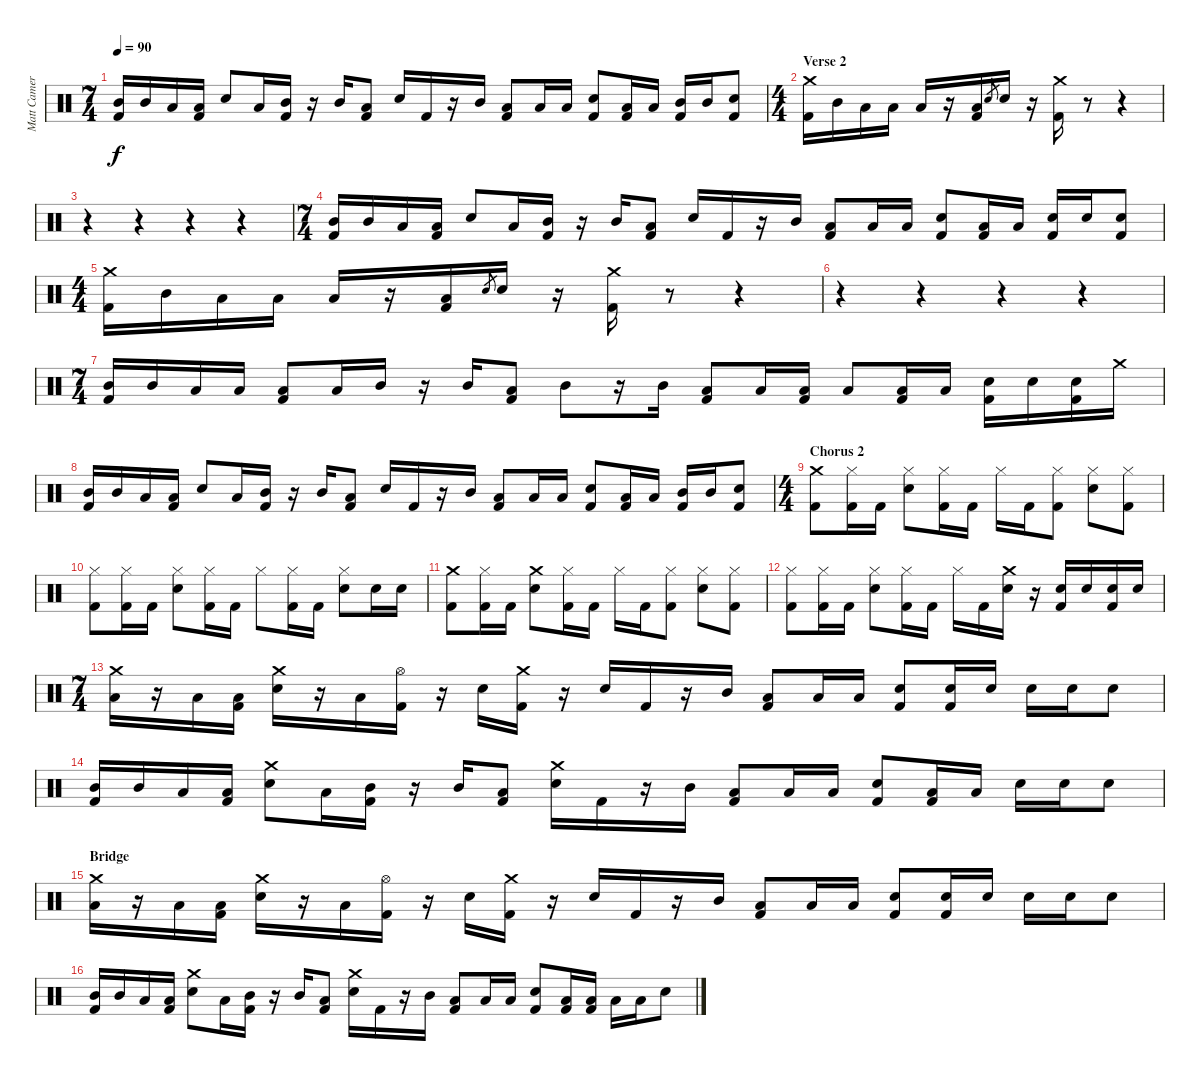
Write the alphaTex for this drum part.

\track ("Matt Cameron" "Matt Camer") {instrument percussion}
\staff {score}
\articulation defaults
\ts (7 4)
\tempo 90
\clef neutral
\ks c
("Mid Tom (hit)" "Kick (hit) 2").16{dy f} "Mid Tom (hit)".16 "Low Tom (hit)".16 ("Low Tom (hit)" "Kick (hit) 2").16 "Electric Snare (hit)".8 "Low Tom (hit)".16 ("Mid Tom (hit)" "Kick (hit) 2").16 r.16 "Mid Tom (hit)".16 ("Low Tom (hit)" "Kick (hit) 2").8 "Electric Snare (hit)".16 "Kick (hit) 2".16 r.16 "Mid Tom (hit)".16 ("Low Tom (hit)" "Kick (hit) 2").8 "Low Tom (hit)".16 "Low Tom (hit)".16 ("Electric Snare (hit)" "Kick (hit) 2").8 ("Low Tom (hit)" "Kick (hit) 2").16 "Low Tom (hit)".16 ("Mid Tom (hit)" "Kick (hit) 2").16 "Mid Tom (hit)".16 ("Electric Snare (hit)" "Kick (hit) 2").8 |
\ts (4 4)
\section ("" "Verse 2")
("Crash medium (hit)" "Kick (hit) 2").16 "Mid Tom (hit)".16 "Low Tom (hit)".16 "Low Tom (hit)".16 "Low Tom (hit)".16 r.16 ("Low Tom (hit)" "Kick (hit) 2").16 "Electric Snare (hit)".8{gr} "Electric Snare (hit)".16 r.16 ("Crash medium (hit)" "Kick (hit) 2").16 r.8 r.4 |
r.4 r.4 r.4 r.4 |
\ts (7 4)
("Mid Tom (hit)" "Kick (hit) 2").16 "Mid Tom (hit)".16 "Low Tom (hit)".16 ("Low Tom (hit)" "Kick (hit) 2").16 "Electric Snare (hit)".8 "Low Tom (hit)".16 ("Mid Tom (hit)" "Kick (hit) 2").16 r.16 "Mid Tom (hit)".16 ("Low Tom (hit)" "Kick (hit) 2").8 "Electric Snare (hit)".16 "Kick (hit) 2".16 r.16 "Mid Tom (hit)".16 ("Low Tom (hit)" "Kick (hit) 2").8 "Low Tom (hit)".16 "Low Tom (hit)".16 ("Electric Snare (hit)" "Kick (hit) 2").8 ("Low Tom (hit)" "Kick (hit) 2").16 "Low Tom (hit)".16 ("Electric Snare (hit)" "Kick (hit) 2").16 "Electric Snare (hit)".16 ("Electric Snare (hit)" "Kick (hit) 2").8 |
\ts (4 4)
("Crash medium (hit)" "Kick (hit) 2").16 "Mid Tom (hit)".16 "Low Tom (hit)".16 "Low Tom (hit)".16 "Low Tom (hit)".16 r.16 ("Low Tom (hit)" "Kick (hit) 2").16 "Electric Snare (hit)".8{gr} "Electric Snare (hit)".16 r.16 ("Crash medium (hit)" "Kick (hit) 2").16 r.8 r.4 |
r.4 r.4 r.4 r.4 |
\ts (7 4)
("Mid Tom (hit)" "Kick (hit) 2").16 "Mid Tom (hit)".16 "Low Tom (hit)".16 "Low Tom (hit)".16 ("Low Tom (hit)" "Kick (hit) 2").8 "Low Tom (hit)".16 "Mid Tom (hit)".16 r.16 "Mid Tom (hit)".16 ("Low Tom (hit)" "Kick (hit) 2").8 "Mid Tom (hit)".8 r.16 "Mid Tom (hit)".16 ("Low Tom (hit)" "Kick (hit) 2").8 "Low Tom (hit)".16 ("Low Tom (hit)" "Kick (hit) 2").16 "Low Tom (hit)".8 ("Low Tom (hit)" "Kick (hit) 2").16 "Low Tom (hit)".16 ("Electric Snare (hit)" "Kick (hit) 2").16 "Electric Snare (hit)".16 ("Electric Snare (hit)" "Kick (hit) 2").16 "Crash medium (hit)".16 |
("Mid Tom (hit)" "Kick (hit) 2").16 "Mid Tom (hit)".16 "Low Tom (hit)".16 ("Low Tom (hit)" "Kick (hit) 2").16 "Electric Snare (hit)".8 "Low Tom (hit)".16 ("Mid Tom (hit)" "Kick (hit) 2").16 r.16 "Mid Tom (hit)".16 ("Low Tom (hit)" "Kick (hit) 2").8 "Electric Snare (hit)".16 "Kick (hit) 2".16 r.16 "Mid Tom (hit)".16 ("Low Tom (hit)" "Kick (hit) 2").8 "Low Tom (hit)".16 "Low Tom (hit)".16 ("Electric Snare (hit)" "Kick (hit) 2").8 ("Low Tom (hit)" "Kick (hit) 2").16 "Low Tom (hit)".16 ("Mid Tom (hit)" "Kick (hit) 2").16 "Mid Tom (hit)".16 ("Electric Snare (hit)" "Kick (hit) 2").8 |
\ts (4 4)
\section ("" "Chorus 2")
("Crash medium (hit)" "Kick (hit) 2").8 ("Hi-Hat (closed)" "Kick (hit) 2").16 "Kick (hit) 2".16 ("Hi-Hat (closed)" "Electric Snare (hit)").8 ("Hi-Hat (closed)" "Kick (hit) 2").16 "Kick (hit) 2".16 "Hi-Hat (closed)".16 "Kick (hit) 2".16 ("Hi-Hat (closed)" "Kick (hit) 2").8 ("Hi-Hat (closed)" "Electric Snare (hit)").8 ("Hi-Hat (closed)" "Kick (hit) 2").8 |
("Hi-Hat (closed)" "Kick (hit) 2").8 ("Hi-Hat (closed)" "Kick (hit) 2").16 "Kick (hit) 2".16 ("Hi-Hat (closed)" "Electric Snare (hit)").8 ("Hi-Hat (closed)" "Kick (hit) 2").16 "Kick (hit) 2".16 "Hi-Hat (closed)".8 ("Hi-Hat (closed)" "Kick (hit) 2").16 "Kick (hit) 2".16 ("Hi-Hat (closed)" "Electric Snare (hit)").8 "Electric Snare (hit)".16 "Electric Snare (hit)".16 |
("Crash medium (hit)" "Kick (hit) 2").8 ("Hi-Hat (closed)" "Kick (hit) 2").16 "Kick (hit) 2".16 ("Crash medium (hit)" "Electric Snare (hit)").8 ("Hi-Hat (closed)" "Kick (hit) 2").16 "Kick (hit) 2".16 "Hi-Hat (closed)".16 "Kick (hit) 2".16 ("Hi-Hat (closed)" "Kick (hit) 2").8 ("Hi-Hat (closed)" "Electric Snare (hit)").8 ("Hi-Hat (closed)" "Kick (hit) 2").8 |
("Hi-Hat (closed)" "Kick (hit) 2").8 ("Hi-Hat (closed)" "Kick (hit) 2").16 "Kick (hit) 2".16 ("Hi-Hat (closed)" "Electric Snare (hit)").8 ("Hi-Hat (closed)" "Kick (hit) 2").16 "Kick (hit) 2".16 "Hi-Hat (closed)".16 "Kick (hit) 2".16 ("Crash medium (hit)" "Electric Snare (hit)").16 r.16 ("Electric Snare (hit)" "Kick (hit) 2").16 "Electric Snare (hit)".16 ("Electric Snare (hit)" "Kick (hit) 2").16 "Electric Snare (hit)".16 |
\ts (7 4)
("Crash medium (hit)" "Low Tom (hit)").16 r.16 "Low Tom (hit)".16 ("Low Tom (hit)" "Kick (hit) 2").16 ("Crash medium (hit)" "Electric Snare (hit)").16 r.16 "Low Tom (hit)".16 ("Hi-Hat (open)" "Kick (hit) 2").16 r.16 "Electric Snare (hit)".16 ("Crash medium (hit)" "Kick (hit) 2").16 r.16 "Electric Snare (hit)".16 "Kick (hit) 2".16 r.16 "Mid Tom (hit)".16 ("Low Tom (hit)" "Kick (hit) 2").8 "Low Tom (hit)".16 "Low Tom (hit)".16 ("Electric Snare (hit)" "Kick (hit) 2").8 ("Electric Snare (hit)" "Kick (hit) 2").16 "Electric Snare (hit)".16 "Electric Snare (hit)".16 "Electric Snare (hit)".16 "Electric Snare (hit)".8 |
("Mid Tom (hit)" "Kick (hit) 2").16 "Mid Tom (hit)".16 "Low Tom (hit)".16 ("Low Tom (hit)" "Kick (hit) 2").16 ("Crash medium (hit)" "Electric Snare (hit)").8 "Low Tom (hit)".16 ("Mid Tom (hit)" "Kick (hit) 2").16 r.16 "Mid Tom (hit)".16 ("Low Tom (hit)" "Kick (hit) 2").8 ("Crash medium (hit)" "Electric Snare (hit)").16 "Kick (hit) 2".16 r.16 "Mid Tom (hit)".16 ("Low Tom (hit)" "Kick (hit) 2").8 "Low Tom (hit)".16 "Low Tom (hit)".16 ("Electric Snare (hit)" "Kick (hit) 2").8 ("Low Tom (hit)" "Kick (hit) 2").16 "Low Tom (hit)".16 "Electric Snare (hit)".16 "Electric Snare (hit)".16 "Electric Snare (hit)".8 |
\section ("" "Bridge")
("Crash medium (hit)" "Low Tom (hit)").16 r.16 "Low Tom (hit)".16 ("Low Tom (hit)" "Kick (hit) 2").16 ("Crash medium (hit)" "Electric Snare (hit)").16 r.16 "Low Tom (hit)".16 ("Hi-Hat (open)" "Kick (hit) 2").16 r.16 "Electric Snare (hit)".16 ("Crash medium (hit)" "Kick (hit) 2").16 r.16 "Electric Snare (hit)".16 "Kick (hit) 2".16 r.16 "Mid Tom (hit)".16 ("Low Tom (hit)" "Kick (hit) 2").8 "Low Tom (hit)".16 "Low Tom (hit)".16 ("Electric Snare (hit)" "Kick (hit) 2").8 ("Electric Snare (hit)" "Kick (hit) 2").16 "Electric Snare (hit)".16 "Electric Snare (hit)".16 "Electric Snare (hit)".16 "Electric Snare (hit)".8 |
("Mid Tom (hit)" "Kick (hit) 2").16 "Mid Tom (hit)".16 "Low Tom (hit)".16 ("Low Tom (hit)" "Kick (hit) 2").16 ("Crash medium (hit)" "Electric Snare (hit)").8 "Low Tom (hit)".16 ("Mid Tom (hit)" "Kick (hit) 2").16 r.16 "Mid Tom (hit)".16 ("Low Tom (hit)" "Kick (hit) 2").8 ("Crash medium (hit)" "Electric Snare (hit)").16 "Kick (hit) 2".16 r.16 "Mid Tom (hit)".16 ("Low Tom (hit)" "Kick (hit) 2").8 "Low Tom (hit)".16 "Low Tom (hit)".16 ("Electric Snare (hit)" "Kick (hit) 2").8 ("Low Tom (hit)" "Kick (hit) 2").16 ("Low Tom (hit)" "Kick (hit) 2").16 "Low Tom (hit)".16 "Low Tom (hit)".16 "Electric Snare (hit)".8
